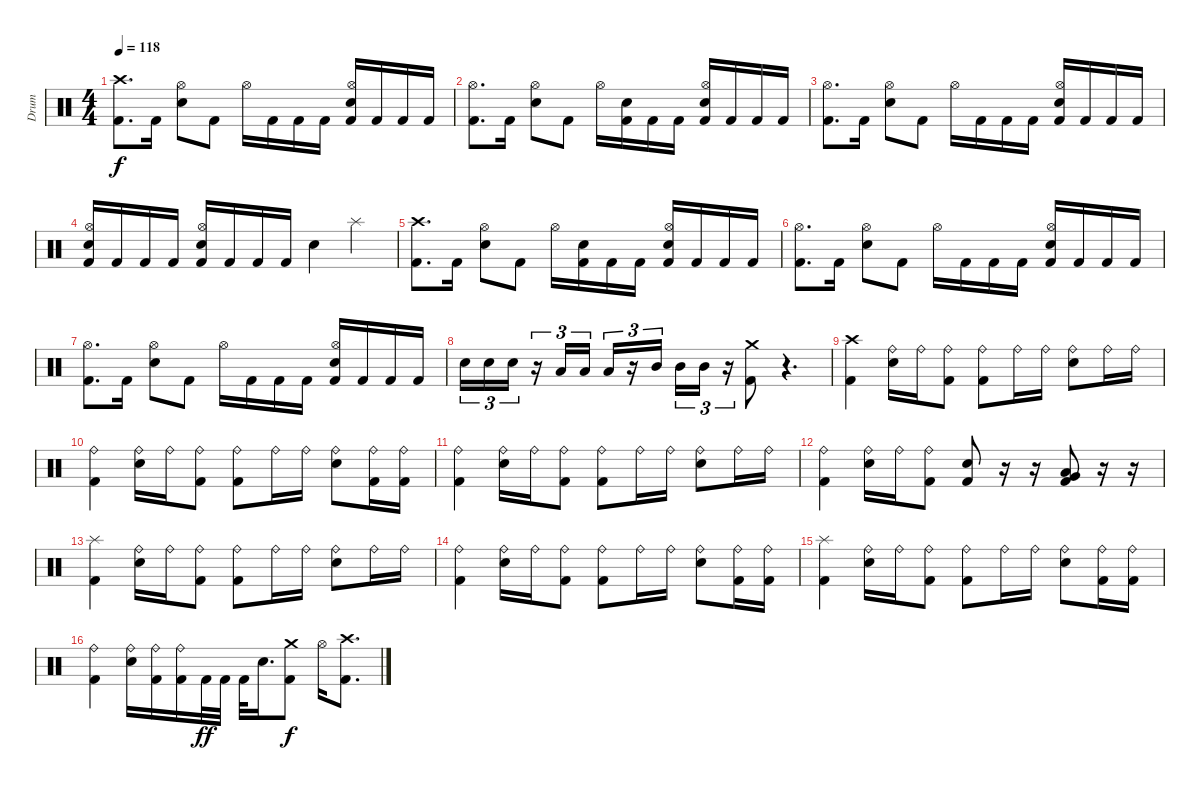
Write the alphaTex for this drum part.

\track ("Drum" "Drum") {instrument percussion}
\staff {score}
\articulation defaults
\ts (4 4)
\tempo 118
\clef neutral
\ks c
("Crash high (hit)" "Kick (hit) 2").8{d dy f} "Kick (hit) 2".16 ("Hi-Hat (open)" "Electric Snare (hit)").8 "Kick (hit) 2".8 "Hi-Hat (open)".16 "Kick (hit) 2".16 "Kick (hit) 2".16 "Kick (hit) 2".16 ("Hi-Hat (open)" "Kick (hit) 2" "Electric Snare (hit)").16 "Kick (hit) 2".16 "Kick (hit) 2".16 "Kick (hit) 2".16 |
("Hi-Hat (open)" "Kick (hit) 2").8{d} "Kick (hit) 2".16 ("Hi-Hat (open)" "Electric Snare (hit)").8 "Kick (hit) 2".8 "Hi-Hat (open)".16 ("Electric Snare (hit)" "Kick (hit) 2").16 "Kick (hit) 2".16 "Kick (hit) 2".16 ("Hi-Hat (open)" "Kick (hit) 2" "Electric Snare (hit)").16 "Kick (hit) 2".16 "Kick (hit) 2".16 "Kick (hit) 2".16 |
("Hi-Hat (open)" "Kick (hit) 2").8{d} "Kick (hit) 2".16 ("Hi-Hat (open)" "Electric Snare (hit)").8 "Kick (hit) 2".8 "Hi-Hat (open)".16 "Kick (hit) 2".16 "Kick (hit) 2".16 "Kick (hit) 2".16 ("Hi-Hat (open)" "Kick (hit) 2" "Electric Snare (hit)").16 "Kick (hit) 2".16 "Kick (hit) 2".16 "Kick (hit) 2".16 |
("Hi-Hat (open)" "Kick (hit) 2" "Electric Snare (hit)").16 "Kick (hit) 2".16 "Kick (hit) 2".16 "Kick (hit) 2".16 ("Hi-Hat (open)" "Kick (hit) 2" "Electric Snare (hit)").16 "Kick (hit) 2".16 "Kick (hit) 2".16 "Kick (hit) 2".16 "Electric Snare (hit)".4 "Splash (hit)".4 |
("Crash high (hit)" "Kick (hit) 2").8{d} "Kick (hit) 2".16 ("Hi-Hat (open)" "Electric Snare (hit)").8 "Kick (hit) 2".8 "Hi-Hat (open)".16 ("Electric Snare (hit)" "Kick (hit) 2").16 "Kick (hit) 2".16 "Kick (hit) 2".16 ("Hi-Hat (open)" "Kick (hit) 2" "Electric Snare (hit)").16 "Kick (hit) 2".16 "Kick (hit) 2".16 "Kick (hit) 2".16 |
("Hi-Hat (open)" "Kick (hit) 2").8{d} "Kick (hit) 2".16 ("Hi-Hat (open)" "Electric Snare (hit)").8 "Kick (hit) 2".8 "Hi-Hat (open)".16 "Kick (hit) 2".16 "Kick (hit) 2".16 "Kick (hit) 2".16 ("Hi-Hat (open)" "Kick (hit) 2" "Electric Snare (hit)").16 "Kick (hit) 2".16 "Kick (hit) 2".16 "Kick (hit) 2".16 |
("Hi-Hat (open)" "Kick (hit) 2").8{d} "Kick (hit) 2".16 ("Hi-Hat (open)" "Electric Snare (hit)").8 "Kick (hit) 2".8 "Hi-Hat (open)".16 "Kick (hit) 2".16 "Kick (hit) 2".16 "Kick (hit) 2".16 ("Hi-Hat (open)" "Kick (hit) 2" "Electric Snare (hit)").16 "Kick (hit) 2".16 "Kick (hit) 2".16 "Kick (hit) 2".16 |
"Electric Snare (hit)".16{tu (3 2)} "Electric Snare (hit)".16{tu (3 2)} "Electric Snare (hit)".16{tu (3 2)} r.16{tu (3 2)} "Low Tom (hit)".16{tu (3 2)} "Low Tom (hit)".16{tu (3 2)} "Low Tom (hit)".16{tu (3 2)} r.16{tu (3 2)} "Mid Tom (hit)".16{tu (3 2)} "Mid Tom (hit)".16{tu (3 2)} "Mid Tom (hit)".16{tu (3 2)} r.16{tu (3 2)} ("Crash medium (hit)" "Kick (hit) 2").8 r.4{d} |
("Crash high (hit)" "Kick (hit) 2").4 ("Electric Snare (hit)" "Ride (bell)").16 "Ride (bell)".16 ("Kick (hit) 2" "Ride (bell)").8 ("Kick (hit) 2" "Ride (bell)").8 "Ride (bell)".16 "Ride (bell)".16 ("Electric Snare (hit)" "Ride (bell)").8 "Ride (bell)".16 "Ride (bell)".16 |
("Ride (bell)" "Kick (hit) 2").4 ("Electric Snare (hit)" "Ride (bell)").16 "Ride (bell)".16 ("Kick (hit) 2" "Ride (bell)").8 ("Kick (hit) 2" "Ride (bell)").8 "Ride (bell)".16 "Ride (bell)".16 ("Electric Snare (hit)" "Ride (bell)").8 ("Kick (hit) 2" "Ride (bell)").16 ("Kick (hit) 2" "Ride (bell)").16 |
("Ride (bell)" "Kick (hit) 2").4 ("Electric Snare (hit)" "Ride (bell)").16 "Ride (bell)".16 ("Kick (hit) 2" "Ride (bell)").8 ("Kick (hit) 2" "Ride (bell)").8 "Ride (bell)".16 "Ride (bell)".16 ("Electric Snare (hit)" "Ride (bell)").8 "Ride (bell)".16 "Ride (bell)".16 |
("Ride (bell)" "Kick (hit) 2").4 ("Electric Snare (hit)" "Ride (bell)").16 "Ride (bell)".16 ("Kick (hit) 2" "Ride (bell)").8 ("Kick (hit) 2" "Electric Snare (hit)").8 r.16 r.16 ("Low Tom (hit)" "Kick (hit) 2" "Very Low Tom (hit)").8 r.16 r.16 |
("Splash (hit)" "Kick (hit) 2").4 ("Electric Snare (hit)" "Ride (bell)").16 "Ride (bell)".16 ("Kick (hit) 2" "Ride (bell)").8 ("Kick (hit) 2" "Ride (bell)").8 "Ride (bell)".16 "Ride (bell)".16 ("Electric Snare (hit)" "Ride (bell)").8 "Ride (bell)".16 "Ride (bell)".16 |
("Ride (bell)" "Kick (hit) 2").4 ("Electric Snare (hit)" "Ride (bell)").16 "Ride (bell)".16 ("Kick (hit) 2" "Ride (bell)").8 ("Kick (hit) 2" "Ride (bell)").8 "Ride (bell)".16 "Ride (bell)".16 ("Electric Snare (hit)" "Ride (bell)").8 ("Kick (hit) 2" "Ride (bell)").16 ("Kick (hit) 2" "Ride (bell)").16 |
("Splash (hit)" "Kick (hit) 2").4 ("Electric Snare (hit)" "Ride (bell)").16 "Ride (bell)".16 ("Kick (hit) 2" "Ride (bell)").8 ("Kick (hit) 2" "Ride (bell)").8 "Ride (bell)".16 "Ride (bell)".16 ("Electric Snare (hit)" "Ride (bell)").8 ("Kick (hit) 2" "Ride (bell)").16 ("Kick (hit) 2" "Ride (bell)").16 |
("Kick (hit) 2" "Ride (bell)").4 ("Electric Snare (hit)" "Ride (bell)").16 ("Kick (hit) 2" "Ride (bell)").16 ("Kick (hit) 2" "Ride (bell)").16 "Kick (hit) 2".32{dy ff} "Kick (hit) 2".32 "Kick (hit) 2".32 "Electric Snare (hit)".16{d} ("Crash medium (hit)" "Kick (hit) 2").8{dy f} "Hi-Hat (open)".16 ("Crash high (hit)" "Kick (hit) 2").8{d}
